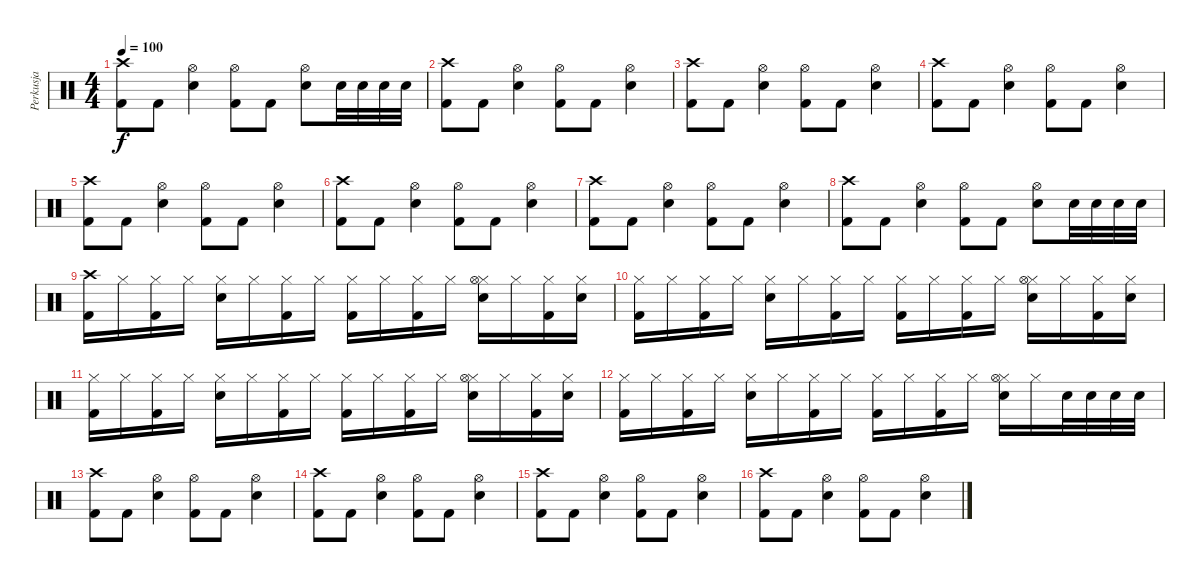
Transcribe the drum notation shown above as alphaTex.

\track ("Perkusja" "Perkusja") {instrument percussion}
\staff {score}
\articulation defaults
\ts (4 4)
\tempo 100
\clef neutral
\ks c
("Crash high (hit)" "Kick (hit) 2").8{dy f} "Kick (hit) 2".8 ("Hi-Hat (open)" "Electric Snare (hit)").4 ("Hi-Hat (open)" "Kick (hit) 2").8 "Kick (hit) 2".8 ("Hi-Hat (open)" "Electric Snare (hit)").8 "Electric Snare (hit)".32 "Electric Snare (hit)".32 "Electric Snare (hit)".32 "Electric Snare (hit)".32 |
("Crash high (hit)" "Kick (hit) 2").8 "Kick (hit) 2".8 ("Hi-Hat (open)" "Electric Snare (hit)").4 ("Hi-Hat (open)" "Kick (hit) 2").8 "Kick (hit) 2".8 ("Hi-Hat (open)" "Electric Snare (hit)").4 |
("Crash high (hit)" "Kick (hit) 2").8 "Kick (hit) 2".8 ("Hi-Hat (open)" "Electric Snare (hit)").4 ("Hi-Hat (open)" "Kick (hit) 2").8 "Kick (hit) 2".8 ("Hi-Hat (open)" "Electric Snare (hit)").4 |
("Crash high (hit)" "Kick (hit) 2").8 "Kick (hit) 2".8 ("Hi-Hat (open)" "Electric Snare (hit)").4 ("Hi-Hat (open)" "Kick (hit) 2").8 "Kick (hit) 2".8 ("Hi-Hat (open)" "Electric Snare (hit)").4 |
("Crash high (hit)" "Kick (hit) 2").8 "Kick (hit) 2".8 ("Hi-Hat (open)" "Electric Snare (hit)").4 ("Hi-Hat (open)" "Kick (hit) 2").8 "Kick (hit) 2".8 ("Hi-Hat (open)" "Electric Snare (hit)").4 |
("Crash high (hit)" "Kick (hit) 2").8 "Kick (hit) 2".8 ("Hi-Hat (open)" "Electric Snare (hit)").4 ("Hi-Hat (open)" "Kick (hit) 2").8 "Kick (hit) 2".8 ("Hi-Hat (open)" "Electric Snare (hit)").4 |
("Crash high (hit)" "Kick (hit) 2").8 "Kick (hit) 2".8 ("Hi-Hat (open)" "Electric Snare (hit)").4 ("Hi-Hat (open)" "Kick (hit) 2").8 "Kick (hit) 2".8 ("Hi-Hat (open)" "Electric Snare (hit)").4 |
("Crash high (hit)" "Kick (hit) 2").8 "Kick (hit) 2".8 ("Hi-Hat (open)" "Electric Snare (hit)").4 ("Hi-Hat (open)" "Kick (hit) 2").8 "Kick (hit) 2".8 ("Hi-Hat (open)" "Electric Snare (hit)").8 "Electric Snare (hit)".32 "Electric Snare (hit)".32 "Electric Snare (hit)".32 "Electric Snare (hit)".32 |
("Crash high (hit)" "Kick (hit) 2").16 "Hi-Hat (closed)".16 ("Hi-Hat (closed)" "Kick (hit) 2").16 "Hi-Hat (closed)".16 ("Hi-Hat (closed)" "Electric Snare (hit)").16 "Hi-Hat (closed)".16 ("Hi-Hat (closed)" "Kick (hit) 2").16 "Hi-Hat (closed)".16 ("Hi-Hat (closed)" "Kick (hit) 2").16 "Hi-Hat (closed)".16 ("Hi-Hat (closed)" "Kick (hit) 2").16 "Hi-Hat (closed)".16 ("Hi-Hat (closed)" "Hi-Hat (open)" "Electric Snare (hit)").16 "Hi-Hat (closed)".16 ("Hi-Hat (closed)" "Kick (hit) 2").16 ("Hi-Hat (closed)" "Electric Snare (hit)").16 |
("Hi-Hat (closed)" "Kick (hit) 2").16 "Hi-Hat (closed)".16 ("Hi-Hat (closed)" "Kick (hit) 2").16 "Hi-Hat (closed)".16 ("Hi-Hat (closed)" "Electric Snare (hit)").16 "Hi-Hat (closed)".16 ("Hi-Hat (closed)" "Kick (hit) 2").16 "Hi-Hat (closed)".16 ("Hi-Hat (closed)" "Kick (hit) 2").16 "Hi-Hat (closed)".16 ("Hi-Hat (closed)" "Kick (hit) 2").16 "Hi-Hat (closed)".16 ("Hi-Hat (closed)" "Hi-Hat (open)" "Electric Snare (hit)").16 "Hi-Hat (closed)".16 ("Hi-Hat (closed)" "Kick (hit) 2").16 ("Hi-Hat (closed)" "Electric Snare (hit)").16 |
("Hi-Hat (closed)" "Kick (hit) 2").16 "Hi-Hat (closed)".16 ("Hi-Hat (closed)" "Kick (hit) 2").16 "Hi-Hat (closed)".16 ("Hi-Hat (closed)" "Electric Snare (hit)").16 "Hi-Hat (closed)".16 ("Hi-Hat (closed)" "Kick (hit) 2").16 "Hi-Hat (closed)".16 ("Hi-Hat (closed)" "Kick (hit) 2").16 "Hi-Hat (closed)".16 ("Hi-Hat (closed)" "Kick (hit) 2").16 "Hi-Hat (closed)".16 ("Hi-Hat (closed)" "Hi-Hat (open)" "Electric Snare (hit)").16 "Hi-Hat (closed)".16 ("Hi-Hat (closed)" "Kick (hit) 2").16 ("Hi-Hat (closed)" "Electric Snare (hit)").16 |
("Hi-Hat (closed)" "Kick (hit) 2").16 "Hi-Hat (closed)".16 ("Hi-Hat (closed)" "Kick (hit) 2").16 "Hi-Hat (closed)".16 ("Hi-Hat (closed)" "Electric Snare (hit)").16 "Hi-Hat (closed)".16 ("Hi-Hat (closed)" "Kick (hit) 2").16 "Hi-Hat (closed)".16 ("Hi-Hat (closed)" "Kick (hit) 2").16 "Hi-Hat (closed)".16 ("Hi-Hat (closed)" "Kick (hit) 2").16 "Hi-Hat (closed)".16 ("Hi-Hat (closed)" "Hi-Hat (open)" "Electric Snare (hit)").16 "Hi-Hat (closed)".16 "Electric Snare (hit)".32 "Electric Snare (hit)".32 "Electric Snare (hit)".32 "Electric Snare (hit)".32 |
("Crash high (hit)" "Kick (hit) 2").8 "Kick (hit) 2".8 ("Hi-Hat (open)" "Electric Snare (hit)").4 ("Hi-Hat (open)" "Kick (hit) 2").8 "Kick (hit) 2".8 ("Hi-Hat (open)" "Electric Snare (hit)").4 |
("Crash high (hit)" "Kick (hit) 2").8 "Kick (hit) 2".8 ("Hi-Hat (open)" "Electric Snare (hit)").4 ("Hi-Hat (open)" "Kick (hit) 2").8 "Kick (hit) 2".8 ("Hi-Hat (open)" "Electric Snare (hit)").4 |
("Crash high (hit)" "Kick (hit) 2").8 "Kick (hit) 2".8 ("Hi-Hat (open)" "Electric Snare (hit)").4 ("Hi-Hat (open)" "Kick (hit) 2").8 "Kick (hit) 2".8 ("Hi-Hat (open)" "Electric Snare (hit)").4 |
("Crash high (hit)" "Kick (hit) 2").8 "Kick (hit) 2".8 ("Hi-Hat (open)" "Electric Snare (hit)").4 ("Hi-Hat (open)" "Kick (hit) 2").8 "Kick (hit) 2".8 ("Hi-Hat (open)" "Electric Snare (hit)").4
